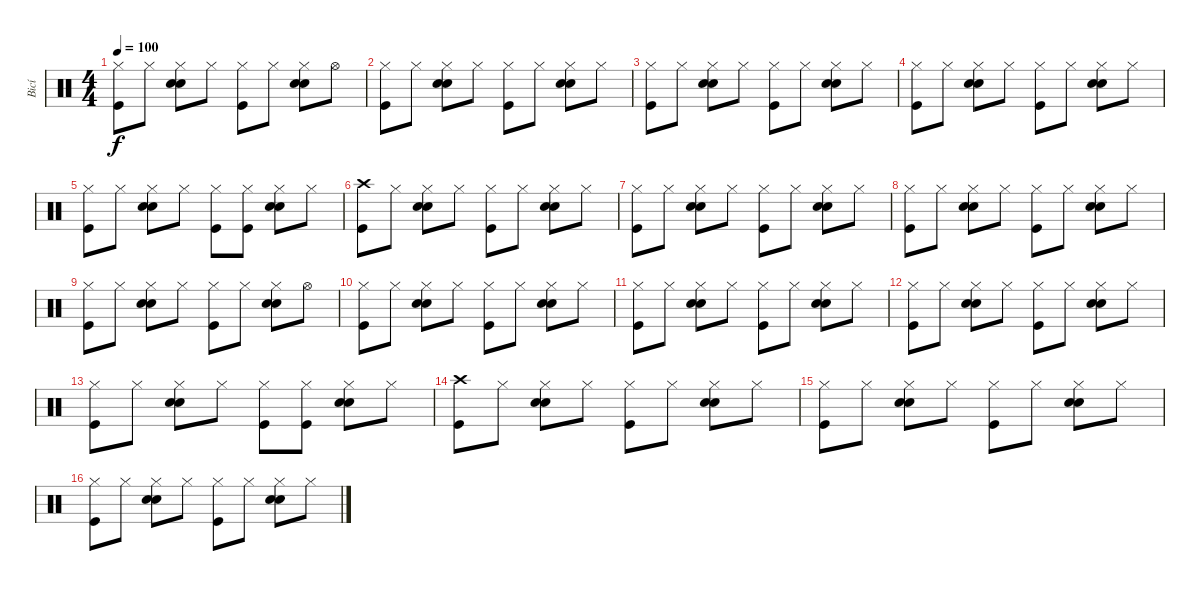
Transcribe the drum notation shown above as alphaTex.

\track ("Bicí" "Bicí") {instrument percussion}
\staff {score}
\articulation defaults
\ts (4 4)
\tempo 100
\clef neutral
\ks c
("Hi-Hat (closed)" "Kick (hit)").8{dy f} "Hi-Hat (closed)".8 ("Hi-Hat (closed)" "Hand Clap (hit)" "Electric Snare (hit)").8 "Hi-Hat (closed)".8 ("Hi-Hat (closed)" "Kick (hit)").8 "Hi-Hat (closed)".8 ("Hi-Hat (closed)" "Hand Clap (hit)" "Electric Snare (hit)").8 "Hi-Hat (open)".8 |
("Hi-Hat (closed)" "Kick (hit)").8 "Hi-Hat (closed)".8 ("Hi-Hat (closed)" "Hand Clap (hit)" "Electric Snare (hit)").8 "Hi-Hat (closed)".8 ("Hi-Hat (closed)" "Kick (hit)").8 "Hi-Hat (closed)".8 ("Hi-Hat (closed)" "Hand Clap (hit)" "Electric Snare (hit)").8 "Hi-Hat (closed)".8 |
("Hi-Hat (closed)" "Kick (hit)").8 "Hi-Hat (closed)".8 ("Hi-Hat (closed)" "Hand Clap (hit)" "Electric Snare (hit)").8 "Hi-Hat (closed)".8 ("Hi-Hat (closed)" "Kick (hit)").8 "Hi-Hat (closed)".8 ("Hi-Hat (closed)" "Hand Clap (hit)" "Electric Snare (hit)").8 "Hi-Hat (closed)".8 |
("Hi-Hat (closed)" "Kick (hit)").8 "Hi-Hat (closed)".8 ("Hi-Hat (closed)" "Hand Clap (hit)" "Electric Snare (hit)").8 "Hi-Hat (closed)".8 ("Hi-Hat (closed)" "Kick (hit)").8 "Hi-Hat (closed)".8 ("Hi-Hat (closed)" "Hand Clap (hit)" "Electric Snare (hit)").8 "Hi-Hat (closed)".8 |
("Hi-Hat (closed)" "Kick (hit)").8 "Hi-Hat (closed)".8 ("Hi-Hat (closed)" "Hand Clap (hit)" "Electric Snare (hit)").8 "Hi-Hat (closed)".8 ("Hi-Hat (closed)" "Kick (hit)").8 ("Hi-Hat (closed)" "Kick (hit)").8 ("Hi-Hat (closed)" "Hand Clap (hit)" "Electric Snare (hit)").8 "Hi-Hat (closed)".8 |
("Crash high (hit)" "Kick (hit)").8 "Hi-Hat (closed)".8 ("Hi-Hat (closed)" "Hand Clap (hit)" "Electric Snare (hit)").8 "Hi-Hat (closed)".8 ("Hi-Hat (closed)" "Kick (hit)").8 "Hi-Hat (closed)".8 ("Hi-Hat (closed)" "Hand Clap (hit)" "Electric Snare (hit)").8 "Hi-Hat (closed)".8 |
("Hi-Hat (closed)" "Kick (hit)").8 "Hi-Hat (closed)".8 ("Hi-Hat (closed)" "Hand Clap (hit)" "Electric Snare (hit)").8 "Hi-Hat (closed)".8 ("Hi-Hat (closed)" "Kick (hit)").8 "Hi-Hat (closed)".8 ("Hi-Hat (closed)" "Hand Clap (hit)" "Electric Snare (hit)").8 "Hi-Hat (closed)".8 |
("Hi-Hat (closed)" "Kick (hit)").8 "Hi-Hat (closed)".8 ("Hi-Hat (closed)" "Hand Clap (hit)" "Electric Snare (hit)").8 "Hi-Hat (closed)".8 ("Hi-Hat (closed)" "Kick (hit)").8 "Hi-Hat (closed)".8 ("Hi-Hat (closed)" "Hand Clap (hit)" "Electric Snare (hit)").8 "Hi-Hat (closed)".8 |
("Hi-Hat (closed)" "Kick (hit)").8 "Hi-Hat (closed)".8 ("Hi-Hat (closed)" "Hand Clap (hit)" "Electric Snare (hit)").8 "Hi-Hat (closed)".8 ("Hi-Hat (closed)" "Kick (hit)").8 "Hi-Hat (closed)".8 ("Hi-Hat (closed)" "Hand Clap (hit)" "Electric Snare (hit)").8 "Hi-Hat (open)".8 |
("Hi-Hat (closed)" "Kick (hit)").8 "Hi-Hat (closed)".8 ("Hi-Hat (closed)" "Hand Clap (hit)" "Electric Snare (hit)").8 "Hi-Hat (closed)".8 ("Hi-Hat (closed)" "Kick (hit)").8 "Hi-Hat (closed)".8 ("Hi-Hat (closed)" "Hand Clap (hit)" "Electric Snare (hit)").8 "Hi-Hat (closed)".8 |
("Hi-Hat (closed)" "Kick (hit)").8 "Hi-Hat (closed)".8 ("Hi-Hat (closed)" "Hand Clap (hit)" "Electric Snare (hit)").8 "Hi-Hat (closed)".8 ("Hi-Hat (closed)" "Kick (hit)").8 "Hi-Hat (closed)".8 ("Hi-Hat (closed)" "Hand Clap (hit)" "Electric Snare (hit)").8 "Hi-Hat (closed)".8 |
("Hi-Hat (closed)" "Kick (hit)").8 "Hi-Hat (closed)".8 ("Hi-Hat (closed)" "Hand Clap (hit)" "Electric Snare (hit)").8 "Hi-Hat (closed)".8 ("Hi-Hat (closed)" "Kick (hit)").8 "Hi-Hat (closed)".8 ("Hi-Hat (closed)" "Hand Clap (hit)" "Electric Snare (hit)").8 "Hi-Hat (closed)".8 |
("Hi-Hat (closed)" "Kick (hit)").8 "Hi-Hat (closed)".8 ("Hi-Hat (closed)" "Hand Clap (hit)" "Electric Snare (hit)").8 "Hi-Hat (closed)".8 ("Hi-Hat (closed)" "Kick (hit)").8 ("Hi-Hat (closed)" "Kick (hit)").8 ("Hi-Hat (closed)" "Hand Clap (hit)" "Electric Snare (hit)").8 "Hi-Hat (closed)".8 |
("Crash high (hit)" "Kick (hit)").8 "Hi-Hat (closed)".8 ("Hi-Hat (closed)" "Hand Clap (hit)" "Electric Snare (hit)").8 "Hi-Hat (closed)".8 ("Hi-Hat (closed)" "Kick (hit)").8 "Hi-Hat (closed)".8 ("Hi-Hat (closed)" "Hand Clap (hit)" "Electric Snare (hit)").8 "Hi-Hat (closed)".8 |
("Hi-Hat (closed)" "Kick (hit)").8 "Hi-Hat (closed)".8 ("Hi-Hat (closed)" "Hand Clap (hit)" "Electric Snare (hit)").8 "Hi-Hat (closed)".8 ("Hi-Hat (closed)" "Kick (hit)").8 "Hi-Hat (closed)".8 ("Hi-Hat (closed)" "Hand Clap (hit)" "Electric Snare (hit)").8 "Hi-Hat (closed)".8 |
("Hi-Hat (closed)" "Kick (hit)").8 "Hi-Hat (closed)".8 ("Hi-Hat (closed)" "Hand Clap (hit)" "Electric Snare (hit)").8 "Hi-Hat (closed)".8 ("Hi-Hat (closed)" "Kick (hit)").8 "Hi-Hat (closed)".8 ("Hi-Hat (closed)" "Hand Clap (hit)" "Electric Snare (hit)").8 "Hi-Hat (closed)".8
